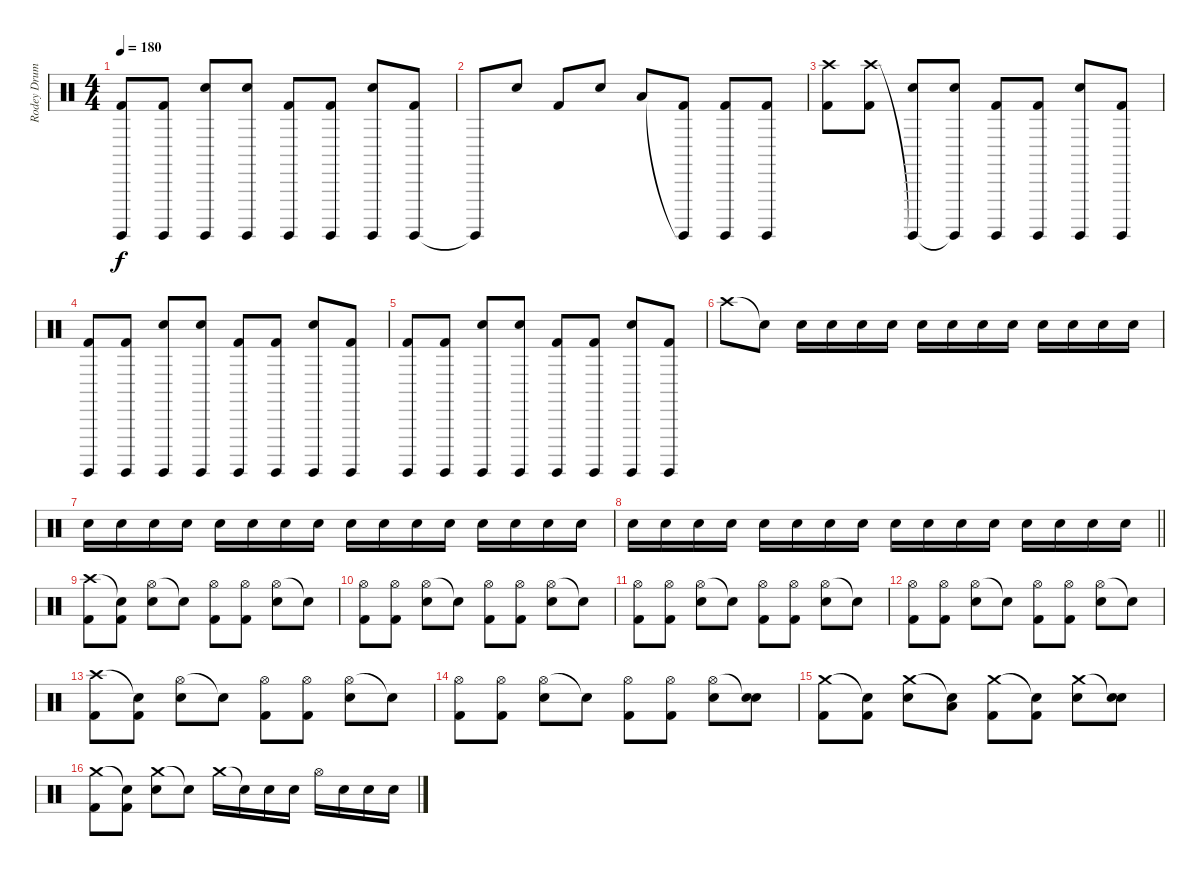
\track ("Rodey Drums" "Rodey Drum") {instrument percussion}
\staff {score}
\articulation defaults
\ts (4 4)
\tempo 180
\clef neutral
\ks c
("Surdo (hit)" "Kick (hit) 2").8{dy f} ("Surdo (hit)" "Kick (hit) 2").8 ("Surdo (hit)" "Electric Snare (hit)").8 ("Surdo (hit)" "Electric Snare (hit)").8 ("Surdo (hit)" "Kick (hit) 2").8 ("Surdo (hit)" "Kick (hit) 2").8 ("Surdo (hit)" "Electric Snare (hit)").8 ("Surdo (hit)" "Kick (hit) 2").8 |
"Surdo (hit)"{t}.8 "Electric Snare (hit)".8 "Kick (hit) 2".8 "Electric Snare (hit)".8 "Low Tom (hit)".8 ("Surdo (hit)"{t} "Kick (hit) 2").8 ("Surdo (hit)" "Kick (hit) 2").8 ("Surdo (hit)" "Kick (hit) 2").8 |
("Crash high (hit)" "Kick (hit) 2").8 ("Crash high (hit)" "Kick (hit) 2").8 ("Surdo (hit)"{t} "Electric Snare (hit)").8 ("Surdo (hit)"{t} "Electric Snare (hit)").8 ("Surdo (hit)" "Kick (hit) 2").8 ("Surdo (hit)" "Kick (hit) 2").8 ("Surdo (hit)" "Electric Snare (hit)").8 ("Surdo (hit)" "Kick (hit) 2").8 |
("Surdo (hit)" "Kick (hit) 2").8 ("Surdo (hit)" "Kick (hit) 2").8 ("Surdo (hit)" "Electric Snare (hit)").8 ("Surdo (hit)" "Electric Snare (hit)").8 ("Surdo (hit)" "Kick (hit) 2").8 ("Surdo (hit)" "Kick (hit) 2").8 ("Surdo (hit)" "Electric Snare (hit)").8 ("Surdo (hit)" "Kick (hit) 2").8 |
("Surdo (hit)" "Kick (hit) 2").8 ("Surdo (hit)" "Kick (hit) 2").8 ("Surdo (hit)" "Electric Snare (hit)").8 ("Surdo (hit)" "Electric Snare (hit)").8 ("Surdo (hit)" "Kick (hit) 2").8 ("Surdo (hit)" "Kick (hit) 2").8 ("Surdo (hit)" "Electric Snare (hit)").8 ("Surdo (hit)" "Kick (hit) 2").8 |
"Crash high (hit)".8 "Snare (hit)"{t}.8 "Electric Snare (hit)".16 "Electric Snare (hit)".16 "Electric Snare (hit)".16 "Electric Snare (hit)".16 "Electric Snare (hit)".16 "Electric Snare (hit)".16 "Electric Snare (hit)".16 "Electric Snare (hit)".16 "Electric Snare (hit)".16 "Electric Snare (hit)".16 "Electric Snare (hit)".16 "Electric Snare (hit)".16 |
"Electric Snare (hit)".16 "Electric Snare (hit)".16 "Electric Snare (hit)".16 "Electric Snare (hit)".16 "Electric Snare (hit)".16 "Electric Snare (hit)".16 "Electric Snare (hit)".16 "Electric Snare (hit)".16 "Electric Snare (hit)".16 "Electric Snare (hit)".16 "Electric Snare (hit)".16 "Electric Snare (hit)".16 "Electric Snare (hit)".16 "Electric Snare (hit)".16 "Electric Snare (hit)".16 "Electric Snare (hit)".16 |
\barLineRight lightlight "Electric Snare (hit)".16 "Electric Snare (hit)".16 "Electric Snare (hit)".16 "Electric Snare (hit)".16 "Electric Snare (hit)".16 "Electric Snare (hit)".16 "Electric Snare (hit)".16 "Electric Snare (hit)".16 "Electric Snare (hit)".16 "Electric Snare (hit)".16 "Electric Snare (hit)".16 "Electric Snare (hit)".16 "Electric Snare (hit)".16 "Electric Snare (hit)".16 "Electric Snare (hit)".16 "Electric Snare (hit)".16
|
("Crash high (hit)" "Kick (hit) 2").8 ("Snare (hit)"{t} "Kick (hit) 2").8 ("Hi-Hat (open)" "Electric Snare (hit)").8 "Snare (hit)"{t}.8 ("Hi-Hat (open)" "Kick (hit) 2").8 ("Hi-Hat (open)" "Kick (hit) 2").8 ("Hi-Hat (open)" "Electric Snare (hit)").8 "Snare (hit)"{t}.8 |
("Hi-Hat (open)" "Kick (hit) 2").8 ("Hi-Hat (open)" "Kick (hit) 2").8 ("Hi-Hat (open)" "Electric Snare (hit)").8 "Snare (hit)"{t}.8 ("Hi-Hat (open)" "Kick (hit) 2").8 ("Hi-Hat (open)" "Kick (hit) 2").8 ("Hi-Hat (open)" "Electric Snare (hit)").8 "Snare (hit)"{t}.8 |
("Hi-Hat (open)" "Kick (hit) 2").8 ("Hi-Hat (open)" "Kick (hit) 2").8 ("Hi-Hat (open)" "Electric Snare (hit)").8 "Snare (hit)"{t}.8 ("Hi-Hat (open)" "Kick (hit) 2").8 ("Hi-Hat (open)" "Kick (hit) 2").8 ("Hi-Hat (open)" "Electric Snare (hit)").8 "Snare (hit)"{t}.8 |
("Hi-Hat (open)" "Kick (hit) 2").8 ("Hi-Hat (open)" "Kick (hit) 2").8 ("Hi-Hat (open)" "Electric Snare (hit)").8 "Snare (hit)"{t}.8 ("Hi-Hat (open)" "Kick (hit) 2").8 ("Hi-Hat (open)" "Kick (hit) 2").8 ("Hi-Hat (open)" "Electric Snare (hit)").8 "Snare (hit)"{t}.8 |
("Crash high (hit)" "Kick (hit) 2").8 ("Snare (hit)"{t} "Kick (hit) 2").8 ("Hi-Hat (open)" "Electric Snare (hit)").8 "Snare (hit)"{t}.8 ("Hi-Hat (open)" "Kick (hit) 2").8 ("Hi-Hat (open)" "Kick (hit) 2").8 ("Hi-Hat (open)" "Electric Snare (hit)").8 "Snare (hit)"{t}.8 |
("Hi-Hat (open)" "Kick (hit) 2").8 ("Hi-Hat (open)" "Kick (hit) 2").8 ("Hi-Hat (open)" "Electric Snare (hit)").8 "Snare (hit)"{t}.8 ("Hi-Hat (open)" "Kick (hit) 2").8 ("Hi-Hat (open)" "Kick (hit) 2").8 ("Hi-Hat (open)" "Electric Snare (hit)").8 ("Snare (hit)"{t} "Electric Snare (hit)").8 |
("Crash medium (hit)" "Kick (hit) 2").8 ("Snare (hit)"{t} "Kick (hit) 2").8 ("Crash medium (hit)" "Electric Snare (hit)").8 ("Snare (hit)"{t} "Low Floor Tom (hit)").8 ("Crash medium (hit)" "Kick (hit) 2").8 ("Snare (hit)"{t} "Kick (hit) 2").8 ("Crash medium (hit)" "Electric Snare (hit)").8 ("Snare (hit)"{t} "Electric Snare (hit)").8 |
("Crash medium (hit)" "Kick (hit) 2").8 ("Snare (hit)"{t} "Kick (hit) 2").8 ("Crash medium (hit)" "Electric Snare (hit)").8 "Snare (hit)"{t}.8 "Crash medium (hit)".16 "Snare (hit)"{t}.16 "Electric Snare (hit)".16 "Electric Snare (hit)".16 "Hi-Hat (open)".16 "Electric Snare (hit)".16 "Electric Snare (hit)".16 "Electric Snare (hit)".16
